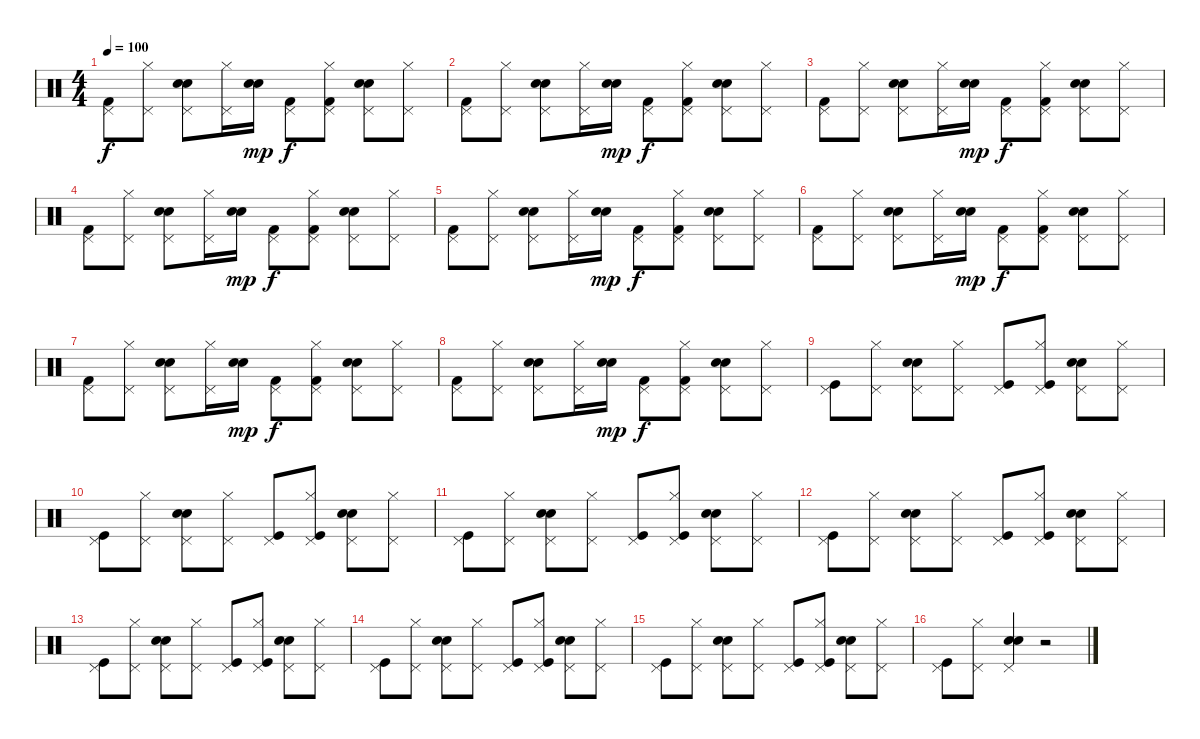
\track "" {instrument percussion}
\staff {score}
\articulation defaults
\ts (4 4)
\tempo 100
\clef neutral
\ks c
("Pedal Hi-Hat (hit)" "Kick (hit) 2").8{dy f} ("Hi-Hat (closed)" "Pedal Hi-Hat (hit)").8 ("Snare (hit) 2" "Electric Snare (hit)" "Pedal Hi-Hat (hit)").8 ("Hi-Hat (closed)" "Pedal Hi-Hat (hit)").16 ("Electric Snare (hit)" "Snare (hit) 2").16{dy mp} ("Pedal Hi-Hat (hit)" "Kick (hit) 2").8{dy f} ("Hi-Hat (closed)" "Pedal Hi-Hat (hit)" "Kick (hit) 2").8 ("Snare (hit) 2" "Electric Snare (hit)" "Pedal Hi-Hat (hit)").8 ("Hi-Hat (closed)" "Pedal Hi-Hat (hit)").8 |
("Pedal Hi-Hat (hit)" "Kick (hit) 2").8 ("Hi-Hat (closed)" "Pedal Hi-Hat (hit)").8 ("Snare (hit) 2" "Electric Snare (hit)" "Pedal Hi-Hat (hit)").8 ("Hi-Hat (closed)" "Pedal Hi-Hat (hit)").16 ("Electric Snare (hit)" "Snare (hit) 2").16{dy mp} ("Pedal Hi-Hat (hit)" "Kick (hit) 2").8{dy f} ("Hi-Hat (closed)" "Pedal Hi-Hat (hit)" "Kick (hit) 2").8 ("Snare (hit) 2" "Electric Snare (hit)" "Pedal Hi-Hat (hit)").8 ("Hi-Hat (closed)" "Pedal Hi-Hat (hit)").8 |
("Pedal Hi-Hat (hit)" "Kick (hit) 2").8 ("Hi-Hat (closed)" "Pedal Hi-Hat (hit)").8 ("Snare (hit) 2" "Electric Snare (hit)" "Pedal Hi-Hat (hit)").8 ("Hi-Hat (closed)" "Pedal Hi-Hat (hit)").16 ("Electric Snare (hit)" "Snare (hit) 2").16{dy mp} ("Pedal Hi-Hat (hit)" "Kick (hit) 2").8{dy f} ("Hi-Hat (closed)" "Pedal Hi-Hat (hit)" "Kick (hit) 2").8 ("Snare (hit) 2" "Electric Snare (hit)" "Pedal Hi-Hat (hit)").8 ("Hi-Hat (closed)" "Pedal Hi-Hat (hit)").8 |
("Pedal Hi-Hat (hit)" "Kick (hit) 2").8 ("Hi-Hat (closed)" "Pedal Hi-Hat (hit)").8 ("Snare (hit) 2" "Electric Snare (hit)" "Pedal Hi-Hat (hit)").8 ("Hi-Hat (closed)" "Pedal Hi-Hat (hit)").16 ("Electric Snare (hit)" "Snare (hit) 2").16{dy mp} ("Pedal Hi-Hat (hit)" "Kick (hit) 2").8{dy f} ("Hi-Hat (closed)" "Pedal Hi-Hat (hit)" "Kick (hit) 2").8 ("Snare (hit) 2" "Electric Snare (hit)" "Pedal Hi-Hat (hit)").8 ("Hi-Hat (closed)" "Pedal Hi-Hat (hit)").8 |
("Pedal Hi-Hat (hit)" "Kick (hit) 2").8 ("Hi-Hat (closed)" "Pedal Hi-Hat (hit)").8 ("Snare (hit) 2" "Electric Snare (hit)" "Pedal Hi-Hat (hit)").8 ("Hi-Hat (closed)" "Pedal Hi-Hat (hit)").16 ("Electric Snare (hit)" "Snare (hit) 2").16{dy mp} ("Pedal Hi-Hat (hit)" "Kick (hit) 2").8{dy f} ("Hi-Hat (closed)" "Pedal Hi-Hat (hit)" "Kick (hit) 2").8 ("Snare (hit) 2" "Electric Snare (hit)" "Pedal Hi-Hat (hit)").8 ("Hi-Hat (closed)" "Pedal Hi-Hat (hit)").8 |
("Pedal Hi-Hat (hit)" "Kick (hit) 2").8 ("Hi-Hat (closed)" "Pedal Hi-Hat (hit)").8 ("Snare (hit) 2" "Electric Snare (hit)" "Pedal Hi-Hat (hit)").8 ("Hi-Hat (closed)" "Pedal Hi-Hat (hit)").16 ("Electric Snare (hit)" "Snare (hit) 2").16{dy mp} ("Pedal Hi-Hat (hit)" "Kick (hit) 2").8{dy f} ("Hi-Hat (closed)" "Pedal Hi-Hat (hit)" "Kick (hit) 2").8 ("Snare (hit) 2" "Electric Snare (hit)" "Pedal Hi-Hat (hit)").8 ("Hi-Hat (closed)" "Pedal Hi-Hat (hit)").8 |
("Pedal Hi-Hat (hit)" "Kick (hit) 2").8 ("Hi-Hat (closed)" "Pedal Hi-Hat (hit)").8 ("Snare (hit) 2" "Electric Snare (hit)" "Pedal Hi-Hat (hit)").8 ("Hi-Hat (closed)" "Pedal Hi-Hat (hit)").16 ("Electric Snare (hit)" "Snare (hit) 2").16{dy mp} ("Pedal Hi-Hat (hit)" "Kick (hit) 2").8{dy f} ("Hi-Hat (closed)" "Pedal Hi-Hat (hit)" "Kick (hit) 2").8 ("Snare (hit) 2" "Electric Snare (hit)" "Pedal Hi-Hat (hit)").8 ("Hi-Hat (closed)" "Pedal Hi-Hat (hit)").8 |
("Pedal Hi-Hat (hit)" "Kick (hit) 2").8 ("Hi-Hat (closed)" "Pedal Hi-Hat (hit)").8 ("Snare (hit) 2" "Electric Snare (hit)" "Pedal Hi-Hat (hit)").8 ("Hi-Hat (closed)" "Pedal Hi-Hat (hit)").16 ("Electric Snare (hit)" "Snare (hit) 2").16{dy mp} ("Pedal Hi-Hat (hit)" "Kick (hit) 2").8{dy f} ("Hi-Hat (closed)" "Pedal Hi-Hat (hit)" "Kick (hit) 2").8 ("Snare (hit) 2" "Electric Snare (hit)" "Pedal Hi-Hat (hit)").8 ("Hi-Hat (closed)" "Pedal Hi-Hat (hit)").8 |
("Pedal Hi-Hat (hit)" "Kick (hit)").8 ("Hi-Hat (closed)" "Pedal Hi-Hat (hit)").8 ("Snare (hit) 2" "Electric Snare (hit)" "Pedal Hi-Hat (hit)").8 ("Hi-Hat (closed)" "Pedal Hi-Hat (hit)").8 ("Pedal Hi-Hat (hit)" "Kick (hit)").8 ("Hi-Hat (closed)" "Pedal Hi-Hat (hit)" "Kick (hit)").8 ("Snare (hit) 2" "Electric Snare (hit)" "Pedal Hi-Hat (hit)").8 ("Hi-Hat (closed)" "Pedal Hi-Hat (hit)").8 |
("Pedal Hi-Hat (hit)" "Kick (hit)").8 ("Hi-Hat (closed)" "Pedal Hi-Hat (hit)").8 ("Snare (hit) 2" "Electric Snare (hit)" "Pedal Hi-Hat (hit)").8 ("Hi-Hat (closed)" "Pedal Hi-Hat (hit)").8 ("Pedal Hi-Hat (hit)" "Kick (hit)").8 ("Hi-Hat (closed)" "Pedal Hi-Hat (hit)" "Kick (hit)").8 ("Snare (hit) 2" "Electric Snare (hit)" "Pedal Hi-Hat (hit)").8 ("Hi-Hat (closed)" "Pedal Hi-Hat (hit)").8 |
("Pedal Hi-Hat (hit)" "Kick (hit)").8 ("Hi-Hat (closed)" "Pedal Hi-Hat (hit)").8 ("Snare (hit) 2" "Electric Snare (hit)" "Pedal Hi-Hat (hit)").8 ("Hi-Hat (closed)" "Pedal Hi-Hat (hit)").8 ("Pedal Hi-Hat (hit)" "Kick (hit)").8 ("Hi-Hat (closed)" "Pedal Hi-Hat (hit)" "Kick (hit)").8 ("Snare (hit) 2" "Electric Snare (hit)" "Pedal Hi-Hat (hit)").8 ("Hi-Hat (closed)" "Pedal Hi-Hat (hit)").8 |
("Pedal Hi-Hat (hit)" "Kick (hit)").8 ("Hi-Hat (closed)" "Pedal Hi-Hat (hit)").8 ("Snare (hit) 2" "Electric Snare (hit)" "Pedal Hi-Hat (hit)").8 ("Hi-Hat (closed)" "Pedal Hi-Hat (hit)").8 ("Pedal Hi-Hat (hit)" "Kick (hit)").8 ("Hi-Hat (closed)" "Pedal Hi-Hat (hit)" "Kick (hit)").8 ("Snare (hit) 2" "Electric Snare (hit)" "Pedal Hi-Hat (hit)").8 ("Hi-Hat (closed)" "Pedal Hi-Hat (hit)").8 |
("Pedal Hi-Hat (hit)" "Kick (hit)").8 ("Hi-Hat (closed)" "Pedal Hi-Hat (hit)").8 ("Snare (hit) 2" "Electric Snare (hit)" "Pedal Hi-Hat (hit)").8 ("Hi-Hat (closed)" "Pedal Hi-Hat (hit)").8 ("Pedal Hi-Hat (hit)" "Kick (hit)").8 ("Hi-Hat (closed)" "Pedal Hi-Hat (hit)" "Kick (hit)").8 ("Snare (hit) 2" "Electric Snare (hit)" "Pedal Hi-Hat (hit)").8 ("Hi-Hat (closed)" "Pedal Hi-Hat (hit)").8 |
("Pedal Hi-Hat (hit)" "Kick (hit)").8 ("Hi-Hat (closed)" "Pedal Hi-Hat (hit)").8 ("Snare (hit) 2" "Electric Snare (hit)" "Pedal Hi-Hat (hit)").8 ("Hi-Hat (closed)" "Pedal Hi-Hat (hit)").8 ("Pedal Hi-Hat (hit)" "Kick (hit)").8 ("Hi-Hat (closed)" "Pedal Hi-Hat (hit)" "Kick (hit)").8 ("Snare (hit) 2" "Electric Snare (hit)" "Pedal Hi-Hat (hit)").8 ("Hi-Hat (closed)" "Pedal Hi-Hat (hit)").8 |
("Pedal Hi-Hat (hit)" "Kick (hit)").8 ("Hi-Hat (closed)" "Pedal Hi-Hat (hit)").8 ("Snare (hit) 2" "Electric Snare (hit)" "Pedal Hi-Hat (hit)").8 ("Hi-Hat (closed)" "Pedal Hi-Hat (hit)").8 ("Pedal Hi-Hat (hit)" "Kick (hit)").8 ("Hi-Hat (closed)" "Pedal Hi-Hat (hit)" "Kick (hit)").8 ("Snare (hit) 2" "Electric Snare (hit)" "Pedal Hi-Hat (hit)").8 ("Hi-Hat (closed)" "Pedal Hi-Hat (hit)").8 |
("Pedal Hi-Hat (hit)" "Kick (hit)").8 ("Hi-Hat (closed)" "Pedal Hi-Hat (hit)").8 ("Snare (hit) 2" "Electric Snare (hit)" "Pedal Hi-Hat (hit)").4 r.2
